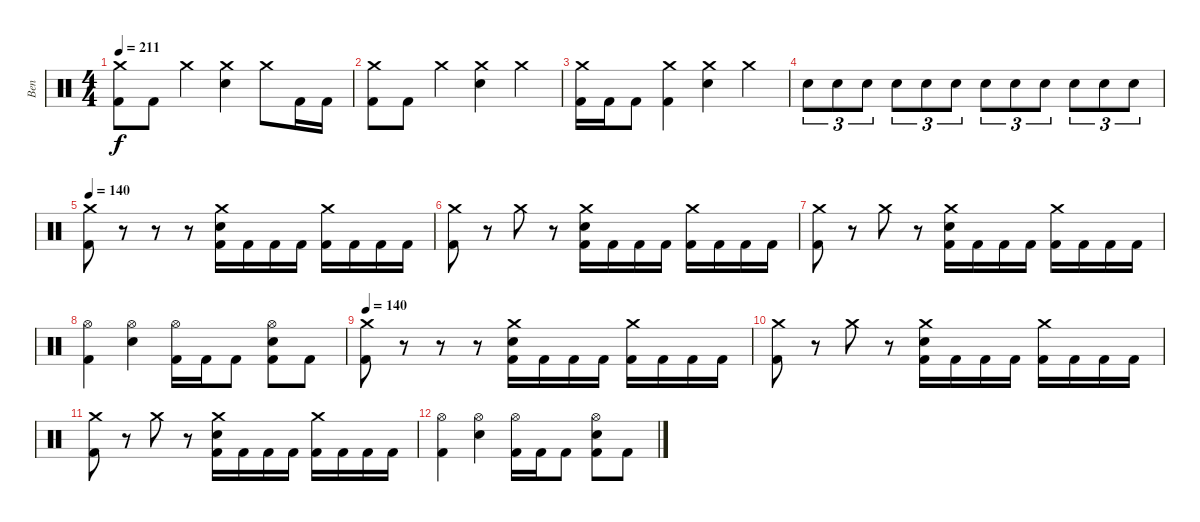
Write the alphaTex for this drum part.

\track ("Ben" "Ben") {instrument percussion}
\staff {score}
\articulation defaults
\ts (4 4)
\tempo 211
\clef neutral
\ks c
("Crash medium (hit)" "Kick (hit) 2").8{dy f} "Kick (hit) 2".8 "Crash medium (hit)".4 ("Crash medium (hit)" "Electric Snare (hit)").4 "Crash medium (hit)".8 "Kick (hit) 2".16 "Kick (hit) 2".16 |
("Crash medium (hit)" "Kick (hit) 2").8 "Kick (hit) 2".8 "Crash medium (hit)".4 ("Crash medium (hit)" "Electric Snare (hit)").4 "Crash medium (hit)".4 |
("Crash medium (hit)" "Kick (hit) 2").16 "Kick (hit) 2".16 "Kick (hit) 2".8 ("Crash medium (hit)" "Kick (hit) 2").4 ("Crash medium (hit)" "Electric Snare (hit)").4 "Crash medium (hit)".4 |
"Electric Snare (hit)".8{tu (3 2)} "Electric Snare (hit)".8{tu (3 2)} "Electric Snare (hit)".8{tu (3 2)} "Electric Snare (hit)".8{tu (3 2)} "Electric Snare (hit)".8{tu (3 2)} "Electric Snare (hit)".8{tu (3 2)} "Electric Snare (hit)".8{tu (3 2)} "Electric Snare (hit)".8{tu (3 2)} "Electric Snare (hit)".8{tu (3 2)} "Electric Snare (hit)".8{tu (3 2)} "Electric Snare (hit)".8{tu (3 2)} "Electric Snare (hit)".8{tu (3 2)} |
\tempo 140
("Crash medium (hit)" "Kick (hit) 2").8 r.8 r.8 r.8 ("Crash medium (hit)" "Electric Snare (hit)" "Kick (hit) 2").16 "Kick (hit) 2".16 "Kick (hit) 2".16 "Kick (hit) 2".16 ("Crash medium (hit)" "Kick (hit) 2").16 "Kick (hit) 2".16 "Kick (hit) 2".16 "Kick (hit) 2".16 |
("Crash medium (hit)" "Kick (hit) 2").8 r.8 "Crash medium (hit)".8 r.8 ("Crash medium (hit)" "Electric Snare (hit)" "Kick (hit) 2").16 "Kick (hit) 2".16 "Kick (hit) 2".16 "Kick (hit) 2".16 ("Crash medium (hit)" "Kick (hit) 2").16 "Kick (hit) 2".16 "Kick (hit) 2".16 "Kick (hit) 2".16 |
("Crash medium (hit)" "Kick (hit) 2").8 r.8 "Crash medium (hit)".8 r.8 ("Crash medium (hit)" "Electric Snare (hit)" "Kick (hit) 2").16 "Kick (hit) 2".16 "Kick (hit) 2".16 "Kick (hit) 2".16 ("Crash medium (hit)" "Kick (hit) 2").16 "Kick (hit) 2".16 "Kick (hit) 2".16 "Kick (hit) 2".16 |
("Hi-Hat (open)" "Kick (hit) 2").4 ("Hi-Hat (open)" "Electric Snare (hit)").4 ("Hi-Hat (open)" "Kick (hit) 2").16 "Kick (hit) 2".16 "Kick (hit) 2".8 ("Hi-Hat (open)" "Electric Snare (hit)" "Kick (hit) 2").8 "Kick (hit) 2".8 |
\tempo 140
("Crash medium (hit)" "Kick (hit) 2").8 r.8 r.8 r.8 ("Crash medium (hit)" "Electric Snare (hit)" "Kick (hit) 2").16 "Kick (hit) 2".16 "Kick (hit) 2".16 "Kick (hit) 2".16 ("Crash medium (hit)" "Kick (hit) 2").16 "Kick (hit) 2".16 "Kick (hit) 2".16 "Kick (hit) 2".16 |
("Crash medium (hit)" "Kick (hit) 2").8 r.8 "Crash medium (hit)".8 r.8 ("Crash medium (hit)" "Electric Snare (hit)" "Kick (hit) 2").16 "Kick (hit) 2".16 "Kick (hit) 2".16 "Kick (hit) 2".16 ("Crash medium (hit)" "Kick (hit) 2").16 "Kick (hit) 2".16 "Kick (hit) 2".16 "Kick (hit) 2".16 |
("Crash medium (hit)" "Kick (hit) 2").8 r.8 "Crash medium (hit)".8 r.8 ("Crash medium (hit)" "Electric Snare (hit)" "Kick (hit) 2").16 "Kick (hit) 2".16 "Kick (hit) 2".16 "Kick (hit) 2".16 ("Crash medium (hit)" "Kick (hit) 2").16 "Kick (hit) 2".16 "Kick (hit) 2".16 "Kick (hit) 2".16 |
("Hi-Hat (open)" "Kick (hit) 2").4 ("Hi-Hat (open)" "Electric Snare (hit)").4 ("Hi-Hat (open)" "Kick (hit) 2").16 "Kick (hit) 2".16 "Kick (hit) 2".8 ("Hi-Hat (open)" "Electric Snare (hit)" "Kick (hit) 2").8 "Kick (hit) 2".8
